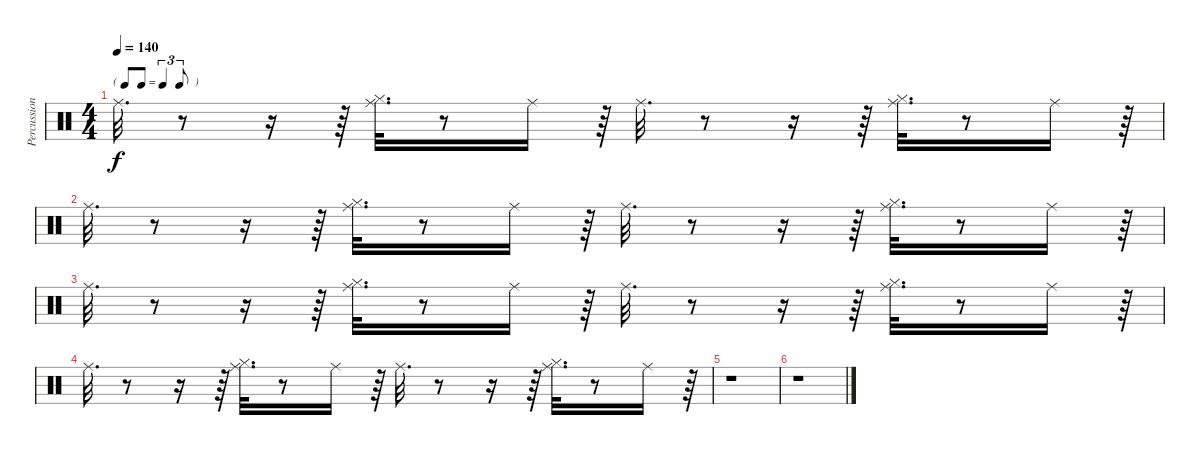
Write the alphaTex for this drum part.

\track ("Percussions" "Percussion") {instrument percussion}
\staff {score}
\articulation defaults
\ts (4 4)
\tf triplet8th
\tempo 140
\clef neutral
\ks c "Ride (middle)".32{d dy f}
r.8 r.16 r.64 ("Hi-Hat (closed)" "Ride (middle)").32{d} r.8 "Ride (middle)".16 r.64 "Ride (middle)".32{d} r.8 r.16 r.64 ("Hi-Hat (closed)" "Ride (middle)").32{d} r.8 "Ride (middle)".16 r.64 |
"Ride (middle)".32{d} r.8 r.16 r.64 ("Hi-Hat (closed)" "Ride (middle)").32{d} r.8 "Ride (middle)".16 r.64 "Ride (middle)".32{d} r.8 r.16 r.64 ("Hi-Hat (closed)" "Ride (middle)").32{d} r.8 "Ride (middle)".16 r.64 |
"Ride (middle)".32{d} r.8 r.16 r.64 ("Hi-Hat (closed)" "Ride (middle)").32{d} r.8 "Ride (middle)".16 r.64 "Ride (middle)".32{d} r.8 r.16 r.64 ("Hi-Hat (closed)" "Ride (middle)").32{d} r.8 "Ride (middle)".16 r.64 |
"Ride (middle)".32{d} r.8 r.16 r.64 ("Hi-Hat (closed)" "Ride (middle)").32{d} r.8 "Ride (middle)".16 r.64 "Ride (middle)".32{d} r.8 r.16 r.64 ("Hi-Hat (closed)" "Ride (middle)").32{d} r.8 "Ride (middle)".16 r.64 |
r.1 |
r.1
